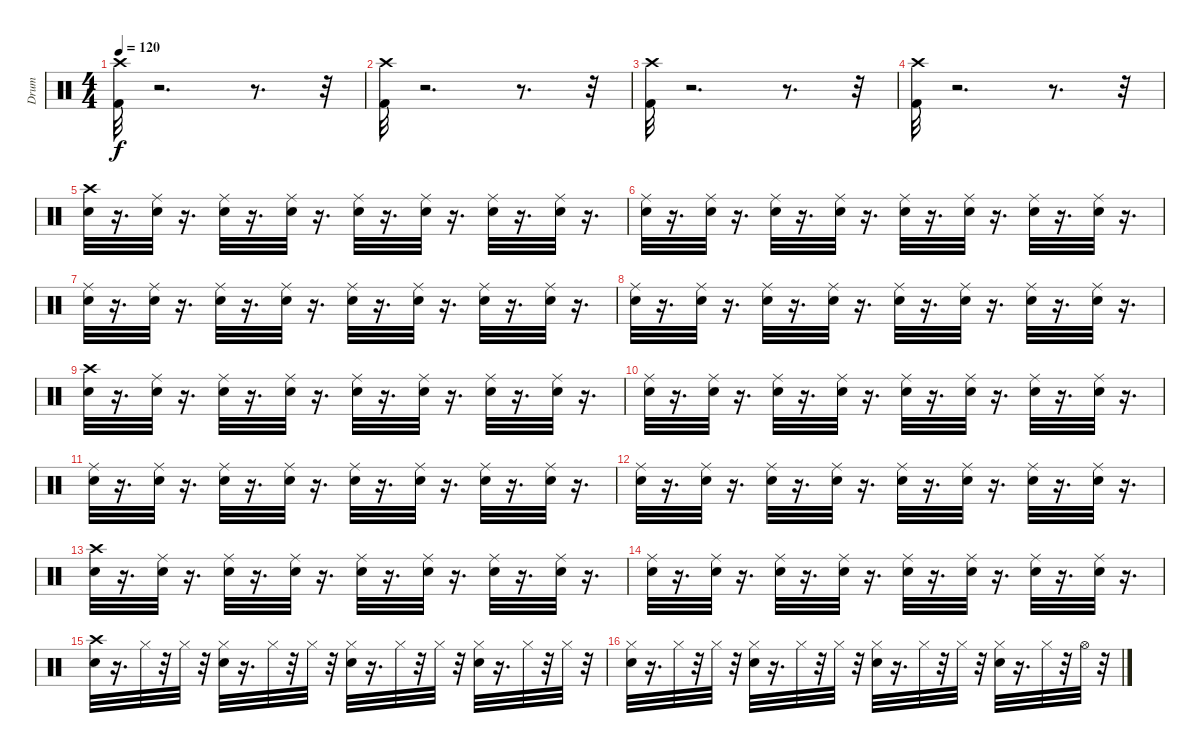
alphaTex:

\track ("Drum" "Drum") {instrument percussion}
\staff {score}
\articulation defaults
\ts (4 4)
\tempo 120
\clef neutral
\ks c
("Kick (hit) 2" "Crash high (hit)").32{dy f} r.2{d} r.8{d} r.32 |
("Kick (hit) 2" "Crash high (hit)").32 r.2{d} r.8{d} r.32 |
("Kick (hit) 2" "Crash high (hit)").32 r.2{d} r.8{d} r.32 |
("Kick (hit) 2" "Crash high (hit)").32 r.2{d} r.8{d} r.32 |
("Crash high (hit)" "Snare (hit) 2").32 r.16{d} ("Ride (middle)" "Snare (hit) 2").32 r.16{d} ("Ride (middle)" "Snare (hit) 2").32 r.16{d} ("Ride (middle)" "Snare (hit) 2").32 r.16{d} ("Ride (middle)" "Snare (hit) 2").32 r.16{d} ("Ride (middle)" "Snare (hit) 2").32 r.16{d} ("Ride (middle)" "Snare (hit) 2").32 r.16{d} ("Ride (middle)" "Snare (hit) 2").32 r.16{d} |
("Ride (middle)" "Snare (hit) 2").32 r.16{d} ("Ride (middle)" "Snare (hit) 2").32 r.16{d} ("Ride (middle)" "Snare (hit) 2").32 r.16{d} ("Ride (middle)" "Snare (hit) 2").32 r.16{d} ("Ride (middle)" "Snare (hit) 2").32 r.16{d} ("Ride (middle)" "Snare (hit) 2").32 r.16{d} ("Ride (middle)" "Snare (hit) 2").32 r.16{d} ("Ride (middle)" "Snare (hit) 2").32 r.16{d} |
("Ride (middle)" "Snare (hit) 2").32 r.16{d} ("Ride (middle)" "Snare (hit) 2").32 r.16{d} ("Ride (middle)" "Snare (hit) 2").32 r.16{d} ("Ride (middle)" "Snare (hit) 2").32 r.16{d} ("Ride (middle)" "Snare (hit) 2").32 r.16{d} ("Ride (middle)" "Snare (hit) 2").32 r.16{d} ("Ride (middle)" "Snare (hit) 2").32 r.16{d} ("Ride (middle)" "Snare (hit) 2").32 r.16{d} |
("Ride (middle)" "Snare (hit) 2").32 r.16{d} ("Ride (middle)" "Snare (hit) 2").32 r.16{d} ("Ride (middle)" "Snare (hit) 2").32 r.16{d} ("Ride (middle)" "Snare (hit) 2").32 r.16{d} ("Ride (middle)" "Snare (hit) 2").32 r.16{d} ("Ride (middle)" "Snare (hit) 2").32 r.16{d} ("Ride (middle)" "Snare (hit) 2").32 r.16{d} ("Ride (middle)" "Snare (hit) 2").32 r.16{d} |
("Snare (hit) 2" "Crash high (hit)").32 r.16{d} ("Ride (middle)" "Snare (hit) 2").32 r.16{d} ("Ride (middle)" "Snare (hit) 2").32 r.16{d} ("Ride (middle)" "Snare (hit) 2").32 r.16{d} ("Ride (middle)" "Snare (hit) 2").32 r.16{d} ("Ride (middle)" "Snare (hit) 2").32 r.16{d} ("Ride (middle)" "Snare (hit) 2").32 r.16{d} ("Ride (middle)" "Snare (hit) 2").32 r.16{d} |
("Ride (middle)" "Snare (hit) 2").32 r.16{d} ("Ride (middle)" "Snare (hit) 2").32 r.16{d} ("Ride (middle)" "Snare (hit) 2").32 r.16{d} ("Ride (middle)" "Snare (hit) 2").32 r.16{d} ("Ride (middle)" "Snare (hit) 2").32 r.16{d} ("Ride (middle)" "Snare (hit) 2").32 r.16{d} ("Ride (middle)" "Snare (hit) 2").32 r.16{d} ("Ride (middle)" "Snare (hit) 2").32 r.16{d} |
("Ride (middle)" "Snare (hit) 2").32 r.16{d} ("Ride (middle)" "Snare (hit) 2").32 r.16{d} ("Ride (middle)" "Snare (hit) 2").32 r.16{d} ("Ride (middle)" "Snare (hit) 2").32 r.16{d} ("Ride (middle)" "Snare (hit) 2").32 r.16{d} ("Ride (middle)" "Snare (hit) 2").32 r.16{d} ("Ride (middle)" "Snare (hit) 2").32 r.16{d} ("Ride (middle)" "Snare (hit) 2").32 r.16{d} |
("Ride (middle)" "Snare (hit) 2").32 r.16{d} ("Ride (middle)" "Snare (hit) 2").32 r.16{d} ("Ride (middle)" "Snare (hit) 2").32 r.16{d} ("Ride (middle)" "Snare (hit) 2").32 r.16{d} ("Ride (middle)" "Snare (hit) 2").32 r.16{d} ("Ride (middle)" "Snare (hit) 2").32 r.16{d} ("Ride (middle)" "Snare (hit) 2").32 r.16{d} ("Ride (middle)" "Snare (hit) 2").32 r.16{d} |
("Snare (hit) 2" "Crash high (hit)").32 r.16{d} ("Ride (middle)" "Snare (hit) 2").32 r.16{d} ("Ride (middle)" "Snare (hit) 2").32 r.16{d} ("Ride (middle)" "Snare (hit) 2").32 r.16{d} ("Ride (middle)" "Snare (hit) 2").32 r.16{d} ("Ride (middle)" "Snare (hit) 2").32 r.16{d} ("Ride (middle)" "Snare (hit) 2").32 r.16{d} ("Ride (middle)" "Snare (hit) 2").32 r.16{d} |
("Ride (middle)" "Snare (hit) 2").32 r.16{d} ("Ride (middle)" "Snare (hit) 2").32 r.16{d} ("Ride (middle)" "Snare (hit) 2").32 r.16{d} ("Ride (middle)" "Snare (hit) 2").32 r.16{d} ("Ride (middle)" "Snare (hit) 2").32 r.16{d} ("Ride (middle)" "Snare (hit) 2").32 r.16{d} ("Ride (middle)" "Snare (hit) 2").32 r.16{d} ("Ride (middle)" "Snare (hit) 2").32 r.16{d} |
("Crash high (hit)" "Snare (hit) 2").32 r.16{d} "Hi-Hat (closed)".32 r.32 "Hi-Hat (closed)".32 r.32 ("Hi-Hat (closed)" "Snare (hit) 2").32 r.16{d} "Hi-Hat (closed)".32 r.32 "Hi-Hat (closed)".32 r.32 ("Hi-Hat (closed)" "Snare (hit) 2").32 r.16{d} "Hi-Hat (closed)".32 r.32 "Hi-Hat (closed)".32 r.32 ("Hi-Hat (closed)" "Snare (hit) 2").32 r.16{d} "Hi-Hat (closed)".32 r.32 "Hi-Hat (closed)".32 r.32 |
("Hi-Hat (closed)" "Snare (hit) 2").32 r.16{d} "Hi-Hat (closed)".32 r.32 "Hi-Hat (closed)".32 r.32 ("Hi-Hat (closed)" "Snare (hit) 2").32 r.16{d} "Hi-Hat (closed)".32 r.32 "Hi-Hat (closed)".32 r.32 ("Hi-Hat (closed)" "Snare (hit) 2").32 r.16{d} "Hi-Hat (closed)".32 r.32 "Hi-Hat (closed)".32 r.32 ("Hi-Hat (closed)" "Snare (hit) 2").32 r.16{d} "Hi-Hat (closed)".32 r.32 "Hi-Hat (open)".32 r.32
